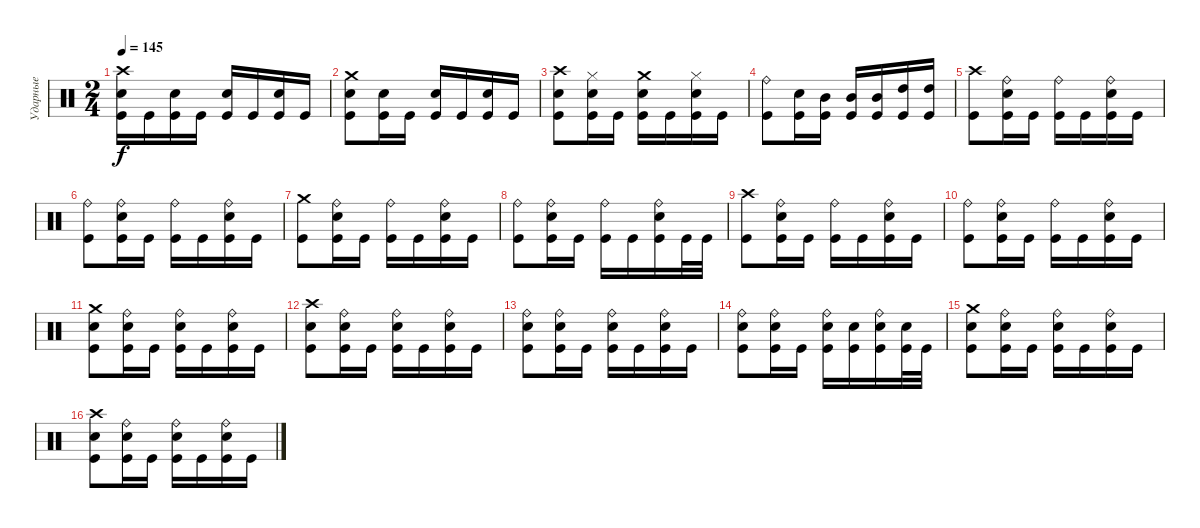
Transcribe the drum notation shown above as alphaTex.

\track ("Ударные" "Ударные") {instrument percussion}
\staff {score}
\articulation defaults
\ts (2 4)
\tempo 145
\clef neutral
\ks c
("Crash high (hit)" "Electric Snare (hit)" "Kick (hit)").16{dy f} "Kick (hit)".16 ("Electric Snare (hit)" "Kick (hit)").16 "Kick (hit)".16 ("Electric Snare (hit)" "Kick (hit)").16 "Kick (hit)".16 ("Electric Snare (hit)" "Kick (hit)").16 "Kick (hit)".16 |
("Crash medium (hit)" "Electric Snare (hit)" "Kick (hit)").8 ("Electric Snare (hit)" "Kick (hit)").16 "Kick (hit)".16 ("Electric Snare (hit)" "Kick (hit)").16 "Kick (hit)".16 ("Electric Snare (hit)" "Kick (hit)").16 "Kick (hit)".16 |
("Crash high (hit)" "Electric Snare (hit)" "Kick (hit)").8 ("Hi-Hat (closed)" "Electric Snare (hit)" "Kick (hit)").16 "Kick (hit)".16 ("Crash medium (hit)" "Electric Snare (hit)" "Kick (hit)").16 "Kick (hit)".16 ("Hi-Hat (closed)" "Electric Snare (hit)" "Kick (hit)").16 "Kick (hit)".16 |
("Ride (bell)" "Kick (hit)").8 ("Electric Snare (hit)" "Kick (hit)").16 ("Mid Tom (hit)" "Kick (hit)").16 ("Mid Tom (hit)" "Kick (hit)").16 ("Mid Tom (hit)" "Kick (hit)").16 ("High Tom (hit)" "Kick (hit)").16 ("High Tom (hit)" "Kick (hit)").16 |
("Crash high (hit)" "Kick (hit)").8 ("Ride (bell)" "Electric Snare (hit)" "Kick (hit)").16 "Kick (hit)".16 ("Ride (bell)" "Kick (hit)").16 "Kick (hit)".16 ("Ride (bell)" "Electric Snare (hit)" "Kick (hit)").16 "Kick (hit)".16 |
("Ride (bell)" "Kick (hit)").8 ("Ride (bell)" "Electric Snare (hit)" "Kick (hit)").16 "Kick (hit)".16 ("Ride (bell)" "Kick (hit)").16 "Kick (hit)".16 ("Ride (bell)" "Electric Snare (hit)" "Kick (hit)").16 "Kick (hit)".16 |
("Crash medium (hit)" "Kick (hit)").8 ("Ride (bell)" "Electric Snare (hit)" "Kick (hit)").16 "Kick (hit)".16 ("Ride (bell)" "Kick (hit)").16 "Kick (hit)".16 ("Ride (bell)" "Electric Snare (hit)" "Kick (hit)").16 "Kick (hit)".16 |
("Ride (bell)" "Kick (hit)").8 ("Ride (bell)" "Electric Snare (hit)" "Kick (hit)").16 "Kick (hit)".16 ("Ride (bell)" "Kick (hit)").16 "Kick (hit)".16 ("Ride (bell)" "Electric Snare (hit)" "Kick (hit)").16 "Kick (hit)".32 "Kick (hit)".32 |
("Crash high (hit)" "Kick (hit)").8 ("Ride (bell)" "Electric Snare (hit)" "Kick (hit)").16 "Kick (hit)".16 ("Ride (bell)" "Kick (hit)").16 "Kick (hit)".16 ("Ride (bell)" "Electric Snare (hit)" "Kick (hit)").16 "Kick (hit)".16 |
("Ride (bell)" "Kick (hit)").8 ("Ride (bell)" "Electric Snare (hit)" "Kick (hit)").16 "Kick (hit)".16 ("Ride (bell)" "Kick (hit)").16 "Kick (hit)".16 ("Ride (bell)" "Electric Snare (hit)" "Kick (hit)").16 "Kick (hit)".16 |
("Crash medium (hit)" "Electric Snare (hit)" "Kick (hit)").8 ("Ride (bell)" "Electric Snare (hit)" "Kick (hit)").16 "Kick (hit)".16 ("Ride (bell)" "Electric Snare (hit)" "Kick (hit)").16 "Kick (hit)".16 ("Ride (bell)" "Electric Snare (hit)" "Kick (hit)").16 "Kick (hit)".16 |
("Crash high (hit)" "Electric Snare (hit)" "Kick (hit)").8 ("Ride (bell)" "Electric Snare (hit)" "Kick (hit)").16 "Kick (hit)".16 ("Ride (bell)" "Electric Snare (hit)" "Kick (hit)").16 "Kick (hit)".16 ("Ride (bell)" "Electric Snare (hit)" "Kick (hit)").16 "Kick (hit)".16 |
("Ride (bell)" "Electric Snare (hit)" "Kick (hit)").8 ("Ride (bell)" "Electric Snare (hit)" "Kick (hit)").16 "Kick (hit)".16 ("Ride (bell)" "Electric Snare (hit)" "Kick (hit)").16 "Kick (hit)".16 ("Ride (bell)" "Electric Snare (hit)" "Kick (hit)").16 "Kick (hit)".16 |
("Ride (bell)" "Electric Snare (hit)" "Kick (hit)").8 ("Ride (bell)" "Electric Snare (hit)" "Kick (hit)").16 "Kick (hit)".16 ("Ride (bell)" "Electric Snare (hit)" "Kick (hit)").16 ("Electric Snare (hit)" "Kick (hit)").16 ("Ride (bell)" "Electric Snare (hit)" "Kick (hit)").16 ("Electric Snare (hit)" "Kick (hit)").32 "Kick (hit)".32 |
("Crash medium (hit)" "Electric Snare (hit)" "Kick (hit)").8 ("Ride (bell)" "Electric Snare (hit)" "Kick (hit)").16 "Kick (hit)".16 ("Ride (bell)" "Electric Snare (hit)" "Kick (hit)").16 "Kick (hit)".16 ("Ride (bell)" "Electric Snare (hit)" "Kick (hit)").16 "Kick (hit)".16 |
("Crash high (hit)" "Electric Snare (hit)" "Kick (hit)").8 ("Ride (bell)" "Electric Snare (hit)" "Kick (hit)").16 "Kick (hit)".16 ("Ride (bell)" "Electric Snare (hit)" "Kick (hit)").16 "Kick (hit)".16 ("Ride (bell)" "Electric Snare (hit)" "Kick (hit)").16 "Kick (hit)".16
